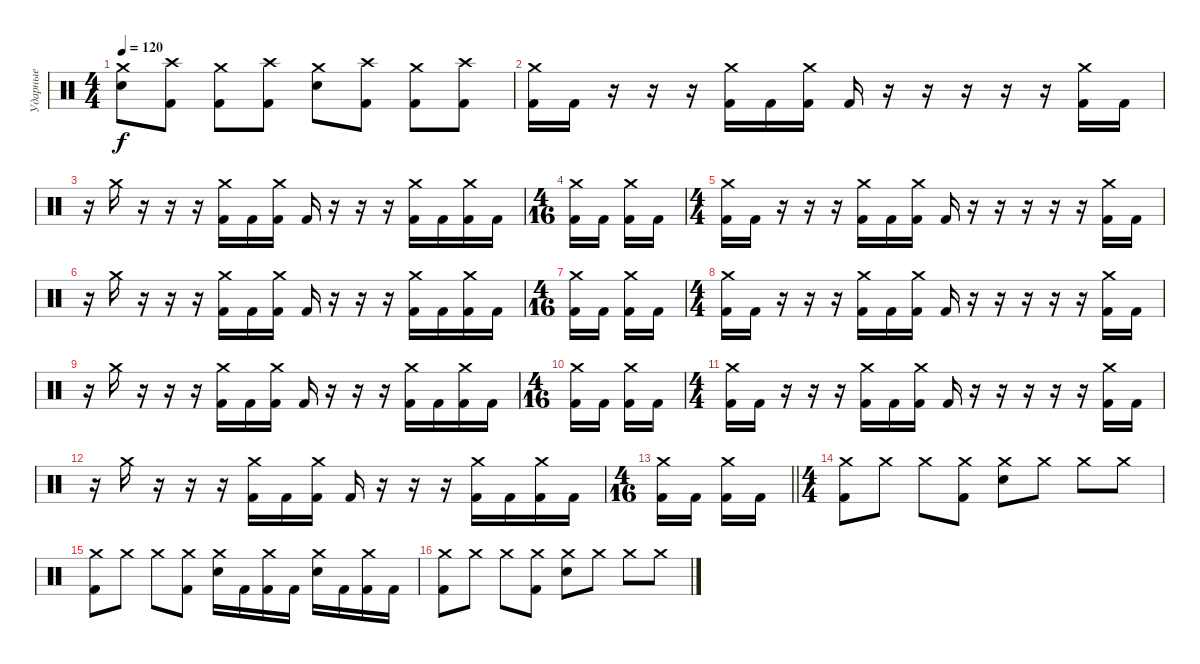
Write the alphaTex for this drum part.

\track ("Ударные" "Ударные") {instrument percussion}
\staff {score}
\articulation defaults
\ts (4 4)
\tempo 120
\clef neutral
\ks c
("Crash medium (hit)" "Electric Snare (hit)").8{dy f} ("Crash high (hit)" "Kick (hit) 2").8 ("Crash medium (hit)" "Kick (hit) 2").8 ("Crash high (hit)" "Kick (hit) 2").8 ("Crash medium (hit)" "Electric Snare (hit)").8 ("Crash high (hit)" "Kick (hit) 2").8 ("Crash medium (hit)" "Kick (hit) 2").8 ("Crash high (hit)" "Kick (hit) 2").8 |
("Crash medium (hit)" "Kick (hit) 2").16 "Kick (hit) 2".16 r.16 r.16 r.16 ("Crash medium (hit)" "Kick (hit) 2").16 "Kick (hit) 2".16 ("Crash medium (hit)" "Kick (hit) 2").16 "Kick (hit) 2".16 r.16 r.16 r.16 r.16 r.16 ("Crash medium (hit)" "Kick (hit) 2").16 "Kick (hit) 2".16 |
r.16 "Crash medium (hit)".16 r.16 r.16 r.16 ("Crash medium (hit)" "Kick (hit) 2").16 "Kick (hit) 2".16 ("Crash medium (hit)" "Kick (hit) 2").16 "Kick (hit) 2".16 r.16 r.16 r.16 ("Crash medium (hit)" "Kick (hit) 2").16 "Kick (hit) 2".16 ("Crash medium (hit)" "Kick (hit) 2").16 "Kick (hit) 2".16 |
\ts (4 16)
("Crash medium (hit)" "Kick (hit) 2").16 "Kick (hit) 2".16 ("Crash medium (hit)" "Kick (hit) 2").16 "Kick (hit) 2".16 |
\ts (4 4)
("Crash medium (hit)" "Kick (hit) 2").16 "Kick (hit) 2".16 r.16 r.16 r.16 ("Crash medium (hit)" "Kick (hit) 2").16 "Kick (hit) 2".16 ("Crash medium (hit)" "Kick (hit) 2").16 "Kick (hit) 2".16 r.16 r.16 r.16 r.16 r.16 ("Crash medium (hit)" "Kick (hit) 2").16 "Kick (hit) 2".16 |
r.16 "Crash medium (hit)".16 r.16 r.16 r.16 ("Crash medium (hit)" "Kick (hit) 2").16 "Kick (hit) 2".16 ("Crash medium (hit)" "Kick (hit) 2").16 "Kick (hit) 2".16 r.16 r.16 r.16 ("Crash medium (hit)" "Kick (hit) 2").16 "Kick (hit) 2".16 ("Crash medium (hit)" "Kick (hit) 2").16 "Kick (hit) 2".16 |
\ts (4 16)
("Crash medium (hit)" "Kick (hit) 2").16 "Kick (hit) 2".16 ("Crash medium (hit)" "Kick (hit) 2").16 "Kick (hit) 2".16 |
\ts (4 4)
("Crash medium (hit)" "Kick (hit) 2").16 "Kick (hit) 2".16 r.16 r.16 r.16 ("Crash medium (hit)" "Kick (hit) 2").16 "Kick (hit) 2".16 ("Crash medium (hit)" "Kick (hit) 2").16 "Kick (hit) 2".16 r.16 r.16 r.16 r.16 r.16 ("Crash medium (hit)" "Kick (hit) 2").16 "Kick (hit) 2".16 |
r.16 "Crash medium (hit)".16 r.16 r.16 r.16 ("Crash medium (hit)" "Kick (hit) 2").16 "Kick (hit) 2".16 ("Crash medium (hit)" "Kick (hit) 2").16 "Kick (hit) 2".16 r.16 r.16 r.16 ("Crash medium (hit)" "Kick (hit) 2").16 "Kick (hit) 2".16 ("Crash medium (hit)" "Kick (hit) 2").16 "Kick (hit) 2".16 |
\ts (4 16)
("Crash medium (hit)" "Kick (hit) 2").16 "Kick (hit) 2".16 ("Crash medium (hit)" "Kick (hit) 2").16 "Kick (hit) 2".16 |
\ts (4 4)
("Crash medium (hit)" "Kick (hit) 2").16 "Kick (hit) 2".16 r.16 r.16 r.16 ("Crash medium (hit)" "Kick (hit) 2").16 "Kick (hit) 2".16 ("Crash medium (hit)" "Kick (hit) 2").16 "Kick (hit) 2".16 r.16 r.16 r.16 r.16 r.16 ("Crash medium (hit)" "Kick (hit) 2").16 "Kick (hit) 2".16 |
r.16 "Crash medium (hit)".16 r.16 r.16 r.16 ("Crash medium (hit)" "Kick (hit) 2").16 "Kick (hit) 2".16 ("Crash medium (hit)" "Kick (hit) 2").16 "Kick (hit) 2".16 r.16 r.16 r.16 ("Crash medium (hit)" "Kick (hit) 2").16 "Kick (hit) 2".16 ("Crash medium (hit)" "Kick (hit) 2").16 "Kick (hit) 2".16 |
\ts (4 16)
\barLineRight lightlight
("Crash medium (hit)" "Kick (hit) 2").16 "Kick (hit) 2".16 ("Crash medium (hit)" "Kick (hit) 2").16 "Kick (hit) 2".16 |
\ts (4 4)
\section ("" "")
("Crash medium (hit)" "Kick (hit) 2").8 "Crash medium (hit)".8 "Crash medium (hit)".8 ("Crash medium (hit)" "Kick (hit) 2").8 ("Crash medium (hit)" "Electric Snare (hit)").8 "Crash medium (hit)".8 "Crash medium (hit)".8 "Crash medium (hit)".8 |
("Crash medium (hit)" "Kick (hit) 2").8 "Crash medium (hit)".8 "Crash medium (hit)".8 ("Crash medium (hit)" "Kick (hit) 2").8 ("Crash medium (hit)" "Electric Snare (hit)").16 "Kick (hit) 2".16 ("Crash medium (hit)" "Kick (hit) 2").16 "Kick (hit) 2".16 ("Crash medium (hit)" "Snare (hit) 2").16 "Kick (hit) 2".16 ("Crash medium (hit)" "Kick (hit) 2").16 "Kick (hit) 2".16 |
("Crash medium (hit)" "Kick (hit) 2").8 "Crash medium (hit)".8 "Crash medium (hit)".8 ("Crash medium (hit)" "Kick (hit) 2").8 ("Crash medium (hit)" "Electric Snare (hit)").8 "Crash medium (hit)".8 "Crash medium (hit)".8 "Crash medium (hit)".8
